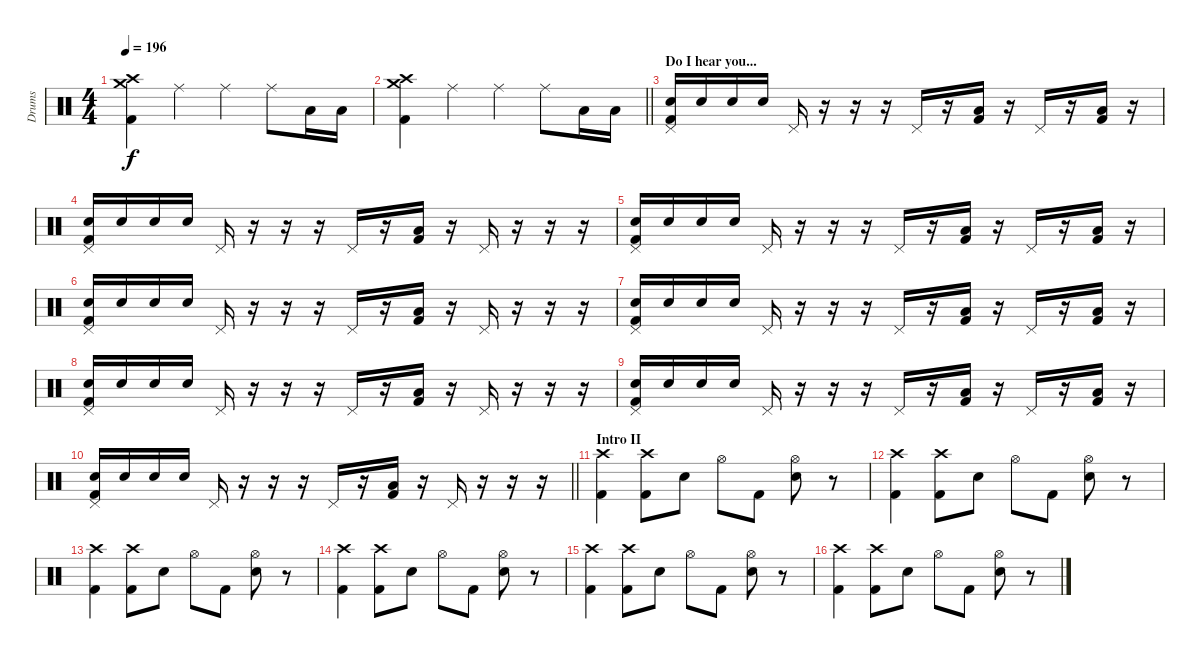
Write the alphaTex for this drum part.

\track ("Drums" "Drums") {instrument percussion}
\staff {score}
\articulation defaults
\ts (4 4)
\tempo 196
\clef neutral
\ks c
("Crash medium (hit)" "Crash high (hit)" "Kick (hit) 2").4{dy f} "Ride (middle)".4 "Ride (middle)".4 "Ride (middle)".8 "Low Tom (hit)".16 "Low Tom (hit)".16 |
\barLineRight lightlight
("Crash medium (hit)" "Crash high (hit)" "Kick (hit) 2").4 "Ride (middle)".4 "Ride (middle)".4 "Ride (middle)".8 "Low Tom (hit)".16 "Low Tom (hit)".16 |
\section ("" "Do I hear you...")
("Pedal Hi-Hat (hit)" "Electric Snare (hit)" "Kick (hit) 2").16 "Electric Snare (hit)".16 "Electric Snare (hit)".16 "Electric Snare (hit)".16 "Pedal Hi-Hat (hit)".16 r.16 r.16 r.16 "Pedal Hi-Hat (hit)".16 r.16 ("Low Tom (hit)" "Kick (hit) 2").16 r.16 "Pedal Hi-Hat (hit)".16 r.16 ("Low Tom (hit)" "Kick (hit) 2").16 r.16 |
("Pedal Hi-Hat (hit)" "Electric Snare (hit)" "Kick (hit) 2").16 "Electric Snare (hit)".16 "Electric Snare (hit)".16 "Electric Snare (hit)".16 "Pedal Hi-Hat (hit)".16 r.16 r.16 r.16 "Pedal Hi-Hat (hit)".16 r.16 ("Low Tom (hit)" "Kick (hit) 2").16 r.16 "Pedal Hi-Hat (hit)".16 r.16 r.16 r.16 |
("Pedal Hi-Hat (hit)" "Electric Snare (hit)" "Kick (hit) 2").16 "Electric Snare (hit)".16 "Electric Snare (hit)".16 "Electric Snare (hit)".16 "Pedal Hi-Hat (hit)".16 r.16 r.16 r.16 "Pedal Hi-Hat (hit)".16 r.16 ("Low Tom (hit)" "Kick (hit) 2").16 r.16 "Pedal Hi-Hat (hit)".16 r.16 ("Low Tom (hit)" "Kick (hit) 2").16 r.16 |
("Pedal Hi-Hat (hit)" "Electric Snare (hit)" "Kick (hit) 2").16 "Electric Snare (hit)".16 "Electric Snare (hit)".16 "Electric Snare (hit)".16 "Pedal Hi-Hat (hit)".16 r.16 r.16 r.16 "Pedal Hi-Hat (hit)".16 r.16 ("Low Tom (hit)" "Kick (hit) 2").16 r.16 "Pedal Hi-Hat (hit)".16 r.16 r.16 r.16 |
("Pedal Hi-Hat (hit)" "Electric Snare (hit)" "Kick (hit) 2").16 "Electric Snare (hit)".16 "Electric Snare (hit)".16 "Electric Snare (hit)".16 "Pedal Hi-Hat (hit)".16 r.16 r.16 r.16 "Pedal Hi-Hat (hit)".16 r.16 ("Low Tom (hit)" "Kick (hit) 2").16 r.16 "Pedal Hi-Hat (hit)".16 r.16 ("Low Tom (hit)" "Kick (hit) 2").16 r.16 |
("Pedal Hi-Hat (hit)" "Electric Snare (hit)" "Kick (hit) 2").16 "Electric Snare (hit)".16 "Electric Snare (hit)".16 "Electric Snare (hit)".16 "Pedal Hi-Hat (hit)".16 r.16 r.16 r.16 "Pedal Hi-Hat (hit)".16 r.16 ("Low Tom (hit)" "Kick (hit) 2").16 r.16 "Pedal Hi-Hat (hit)".16 r.16 r.16 r.16 |
("Pedal Hi-Hat (hit)" "Electric Snare (hit)" "Kick (hit) 2").16 "Electric Snare (hit)".16 "Electric Snare (hit)".16 "Electric Snare (hit)".16 "Pedal Hi-Hat (hit)".16 r.16 r.16 r.16 "Pedal Hi-Hat (hit)".16 r.16 ("Low Tom (hit)" "Kick (hit) 2").16 r.16 "Pedal Hi-Hat (hit)".16 r.16 ("Low Tom (hit)" "Kick (hit) 2").16 r.16 |
\barLineRight lightlight
("Pedal Hi-Hat (hit)" "Electric Snare (hit)" "Kick (hit) 2").16 "Electric Snare (hit)".16 "Electric Snare (hit)".16 "Electric Snare (hit)".16 "Pedal Hi-Hat (hit)".16 r.16 r.16 r.16 "Pedal Hi-Hat (hit)".16 r.16 ("Low Tom (hit)" "Kick (hit) 2").16 r.16 "Pedal Hi-Hat (hit)".16 r.16 r.16 r.16 |
\section ("" "Intro II")
("Crash high (hit)" "Kick (hit) 2").4 ("Crash high (hit)" "Kick (hit) 2").8 "Electric Snare (hit)".8 "Hi-Hat (open)".8 "Kick (hit) 2".8 ("Hi-Hat (open)" "Electric Snare (hit)").8 r.8 |
("Crash high (hit)" "Kick (hit) 2").4 ("Crash high (hit)" "Kick (hit) 2").8 "Electric Snare (hit)".8 "Hi-Hat (open)".8 "Kick (hit) 2".8 ("Hi-Hat (open)" "Electric Snare (hit)").8 r.8 |
("Crash high (hit)" "Kick (hit) 2").4 ("Crash high (hit)" "Kick (hit) 2").8 "Electric Snare (hit)".8 "Hi-Hat (open)".8 "Kick (hit) 2".8 ("Hi-Hat (open)" "Electric Snare (hit)").8 r.8 |
("Crash high (hit)" "Kick (hit) 2").4 ("Crash high (hit)" "Kick (hit) 2").8 "Electric Snare (hit)".8 "Hi-Hat (open)".8 "Kick (hit) 2".8 ("Hi-Hat (open)" "Electric Snare (hit)").8 r.8 |
("Crash high (hit)" "Kick (hit) 2").4 ("Crash high (hit)" "Kick (hit) 2").8 "Electric Snare (hit)".8 "Hi-Hat (open)".8 "Kick (hit) 2".8 ("Hi-Hat (open)" "Electric Snare (hit)").8 r.8 |
("Crash high (hit)" "Kick (hit) 2").4 ("Crash high (hit)" "Kick (hit) 2").8 "Electric Snare (hit)".8 "Hi-Hat (open)".8 "Kick (hit) 2".8 ("Hi-Hat (open)" "Electric Snare (hit)").8 r.8
